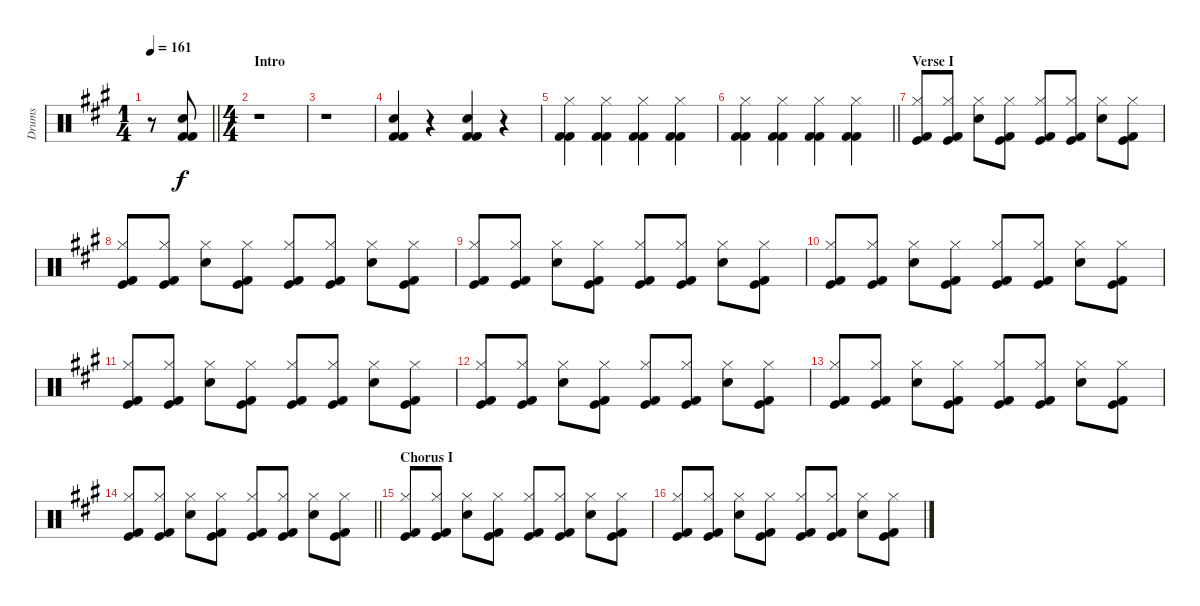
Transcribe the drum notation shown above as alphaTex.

\track ("Drums" "Drums") {instrument percussion}
\staff {score}
\articulation defaults
\ts (1 4)
\tempo 161
\clef neutral
\barLineRight lightlight
\ks a
r.8{dy f} ("Snare (hit) 2" "Kick (hit) 2" "Kick (hit) 2").8 |
\ts (4 4)
\section ("" "Intro")
r.1 |
r.1 |
("Snare (hit) 2" "Kick (hit) 2" "Kick (hit) 2").4 r.4 ("Snare (hit) 2" "Kick (hit) 2" "Kick (hit) 2").4 r.4 |
("Hi-Hat (closed)" "Kick (hit) 2" "Kick (hit) 2").4 ("Hi-Hat (closed)" "Kick (hit) 2" "Kick (hit) 2").4 ("Hi-Hat (closed)" "Kick (hit) 2" "Kick (hit) 2").4 ("Hi-Hat (closed)" "Kick (hit) 2" "Kick (hit) 2").4 |
\barLineRight lightlight
("Hi-Hat (closed)" "Kick (hit) 2" "Kick (hit) 2").4 ("Hi-Hat (closed)" "Kick (hit) 2" "Kick (hit) 2").4 ("Hi-Hat (closed)" "Kick (hit) 2" "Kick (hit) 2").4 ("Hi-Hat (closed)" "Kick (hit) 2" "Kick (hit) 2").4 |
\section ("" "Verse I")
("Hi-Hat (closed)" "Kick (hit)" "Kick (hit) 2").8 ("Hi-Hat (closed)" "Kick (hit)" "Kick (hit) 2").8 ("Hi-Hat (closed)" "Snare (hit) 2").8 ("Hi-Hat (closed)" "Kick (hit)" "Kick (hit) 2").8 ("Hi-Hat (closed)" "Kick (hit)" "Kick (hit) 2").8 ("Hi-Hat (closed)" "Kick (hit)" "Kick (hit) 2").8 ("Hi-Hat (closed)" "Snare (hit) 2").8 ("Hi-Hat (closed)" "Kick (hit)" "Kick (hit) 2").8 |
("Hi-Hat (closed)" "Kick (hit)" "Kick (hit) 2").8 ("Hi-Hat (closed)" "Kick (hit)" "Kick (hit) 2").8 ("Hi-Hat (closed)" "Snare (hit) 2").8 ("Hi-Hat (closed)" "Kick (hit)" "Kick (hit) 2").8 ("Hi-Hat (closed)" "Kick (hit)" "Kick (hit) 2").8 ("Hi-Hat (closed)" "Kick (hit)" "Kick (hit) 2").8 ("Hi-Hat (closed)" "Snare (hit) 2").8 ("Hi-Hat (closed)" "Kick (hit)" "Kick (hit) 2").8 |
("Hi-Hat (closed)" "Kick (hit)" "Kick (hit) 2").8 ("Hi-Hat (closed)" "Kick (hit)" "Kick (hit) 2").8 ("Hi-Hat (closed)" "Snare (hit) 2").8 ("Hi-Hat (closed)" "Kick (hit)" "Kick (hit) 2").8 ("Hi-Hat (closed)" "Kick (hit)" "Kick (hit) 2").8 ("Hi-Hat (closed)" "Kick (hit)" "Kick (hit) 2").8 ("Hi-Hat (closed)" "Snare (hit) 2").8 ("Hi-Hat (closed)" "Kick (hit)" "Kick (hit) 2").8 |
("Hi-Hat (closed)" "Kick (hit)" "Kick (hit) 2").8 ("Hi-Hat (closed)" "Kick (hit)" "Kick (hit) 2").8 ("Hi-Hat (closed)" "Snare (hit) 2").8 ("Hi-Hat (closed)" "Kick (hit)" "Kick (hit) 2").8 ("Hi-Hat (closed)" "Kick (hit)" "Kick (hit) 2").8 ("Hi-Hat (closed)" "Kick (hit)" "Kick (hit) 2").8 ("Hi-Hat (closed)" "Snare (hit) 2").8 ("Hi-Hat (closed)" "Kick (hit)" "Kick (hit) 2").8 |
("Hi-Hat (closed)" "Kick (hit)" "Kick (hit) 2").8 ("Hi-Hat (closed)" "Kick (hit)" "Kick (hit) 2").8 ("Hi-Hat (closed)" "Snare (hit) 2").8 ("Hi-Hat (closed)" "Kick (hit)" "Kick (hit) 2").8 ("Hi-Hat (closed)" "Kick (hit)" "Kick (hit) 2").8 ("Hi-Hat (closed)" "Kick (hit)" "Kick (hit) 2").8 ("Hi-Hat (closed)" "Snare (hit) 2").8 ("Hi-Hat (closed)" "Kick (hit)" "Kick (hit) 2").8 |
("Hi-Hat (closed)" "Kick (hit)" "Kick (hit) 2").8 ("Hi-Hat (closed)" "Kick (hit)" "Kick (hit) 2").8 ("Hi-Hat (closed)" "Snare (hit) 2").8 ("Hi-Hat (closed)" "Kick (hit)" "Kick (hit) 2").8 ("Hi-Hat (closed)" "Kick (hit)" "Kick (hit) 2").8 ("Hi-Hat (closed)" "Kick (hit)" "Kick (hit) 2").8 ("Hi-Hat (closed)" "Snare (hit) 2").8 ("Hi-Hat (closed)" "Kick (hit)" "Kick (hit) 2").8 |
("Hi-Hat (closed)" "Kick (hit)" "Kick (hit) 2").8 ("Hi-Hat (closed)" "Kick (hit)" "Kick (hit) 2").8 ("Hi-Hat (closed)" "Snare (hit) 2").8 ("Hi-Hat (closed)" "Kick (hit)" "Kick (hit) 2").8 ("Hi-Hat (closed)" "Kick (hit)" "Kick (hit) 2").8 ("Hi-Hat (closed)" "Kick (hit)" "Kick (hit) 2").8 ("Hi-Hat (closed)" "Snare (hit) 2").8 ("Hi-Hat (closed)" "Kick (hit)" "Kick (hit) 2").8 |
\barLineRight lightlight
("Hi-Hat (closed)" "Kick (hit)" "Kick (hit) 2").8 ("Hi-Hat (closed)" "Kick (hit)" "Kick (hit) 2").8 ("Hi-Hat (closed)" "Snare (hit) 2").8 ("Hi-Hat (closed)" "Kick (hit)" "Kick (hit) 2").8 ("Hi-Hat (closed)" "Kick (hit)" "Kick (hit) 2").8 ("Hi-Hat (closed)" "Kick (hit)" "Kick (hit) 2").8 ("Hi-Hat (closed)" "Snare (hit) 2").8 ("Hi-Hat (closed)" "Kick (hit)" "Kick (hit) 2").8 |
\section ("" "Chorus I")
("Hi-Hat (closed)" "Kick (hit)" "Kick (hit) 2").8 ("Hi-Hat (closed)" "Kick (hit)" "Kick (hit) 2").8 ("Hi-Hat (closed)" "Snare (hit) 2").8 ("Hi-Hat (closed)" "Kick (hit)" "Kick (hit) 2").8 ("Hi-Hat (closed)" "Kick (hit)" "Kick (hit) 2").8 ("Hi-Hat (closed)" "Kick (hit)" "Kick (hit) 2").8 ("Hi-Hat (closed)" "Snare (hit) 2").8 ("Hi-Hat (closed)" "Kick (hit)" "Kick (hit) 2").8 |
("Hi-Hat (closed)" "Kick (hit)" "Kick (hit) 2").8 ("Hi-Hat (closed)" "Kick (hit)" "Kick (hit) 2").8 ("Hi-Hat (closed)" "Snare (hit) 2").8 ("Hi-Hat (closed)" "Kick (hit)" "Kick (hit) 2").8 ("Hi-Hat (closed)" "Kick (hit)" "Kick (hit) 2").8 ("Hi-Hat (closed)" "Kick (hit)" "Kick (hit) 2").8 ("Hi-Hat (closed)" "Snare (hit) 2").8 ("Hi-Hat (closed)" "Kick (hit)" "Kick (hit) 2").8
